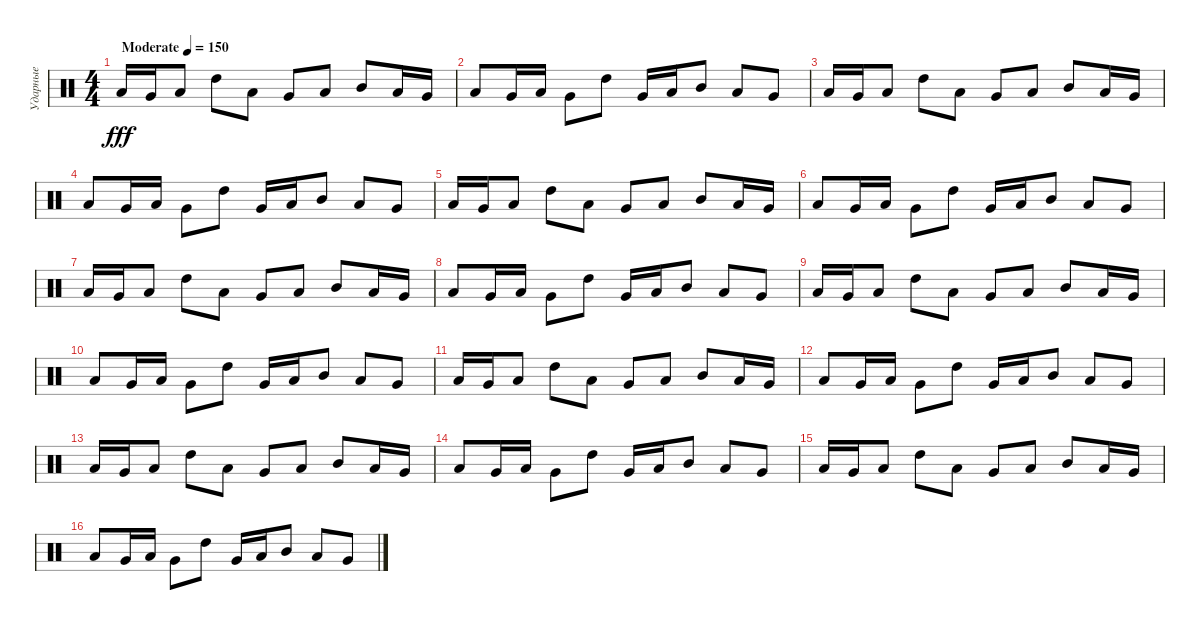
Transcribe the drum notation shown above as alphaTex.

\track ("Ударные" "Ударные") {instrument percussion}
\staff {score}
\articulation defaults
\ts (4 4)
\tempo (150 "Moderate")
\clef neutral
\ks c "Low Floor Tom (hit)".16{dy fff} "Very Low Tom (hit)".16 "Low Tom (hit)".8 "High Tom (hit)".8 "Low Tom (hit)".8 "Very Low Tom (hit)".8 "Low Floor Tom (hit)".8 "Mid Tom (hit)".8 "Low Tom (hit)".16 "Very Low Tom (hit)".16
|
"Low Floor Tom (hit)".8 "Very Low Tom (hit)".16 "Low Tom (hit)".16 "Very Low Tom (hit)".8 "High Tom (hit)".8 "Very Low Tom (hit)".16 "Low Floor Tom (hit)".16 "Mid Tom (hit)".8 "Low Tom (hit)".8 "Very Low Tom (hit)".8 |
"Low Floor Tom (hit)".16 "Very Low Tom (hit)".16 "Low Tom (hit)".8 "High Tom (hit)".8 "Low Tom (hit)".8 "Very Low Tom (hit)".8 "Low Floor Tom (hit)".8 "Mid Tom (hit)".8 "Low Tom (hit)".16 "Very Low Tom (hit)".16 |
"Low Floor Tom (hit)".8 "Very Low Tom (hit)".16 "Low Tom (hit)".16 "Very Low Tom (hit)".8 "High Tom (hit)".8 "Very Low Tom (hit)".16 "Low Floor Tom (hit)".16 "Mid Tom (hit)".8 "Low Tom (hit)".8 "Very Low Tom (hit)".8 |
"Low Floor Tom (hit)".16 "Very Low Tom (hit)".16 "Low Tom (hit)".8 "High Tom (hit)".8 "Low Tom (hit)".8 "Very Low Tom (hit)".8 "Low Floor Tom (hit)".8 "Mid Tom (hit)".8 "Low Tom (hit)".16 "Very Low Tom (hit)".16 |
"Low Floor Tom (hit)".8 "Very Low Tom (hit)".16 "Low Tom (hit)".16 "Very Low Tom (hit)".8 "High Tom (hit)".8 "Very Low Tom (hit)".16 "Low Floor Tom (hit)".16 "Mid Tom (hit)".8 "Low Tom (hit)".8 "Very Low Tom (hit)".8 |
"Low Floor Tom (hit)".16 "Very Low Tom (hit)".16 "Low Tom (hit)".8 "High Tom (hit)".8 "Low Tom (hit)".8 "Very Low Tom (hit)".8 "Low Floor Tom (hit)".8 "Mid Tom (hit)".8 "Low Tom (hit)".16 "Very Low Tom (hit)".16 |
"Low Floor Tom (hit)".8 "Very Low Tom (hit)".16 "Low Tom (hit)".16 "Very Low Tom (hit)".8 "High Tom (hit)".8 "Very Low Tom (hit)".16 "Low Floor Tom (hit)".16 "Mid Tom (hit)".8 "Low Tom (hit)".8 "Very Low Tom (hit)".8 |
"Low Floor Tom (hit)".16 "Very Low Tom (hit)".16 "Low Tom (hit)".8 "High Tom (hit)".8 "Low Tom (hit)".8 "Very Low Tom (hit)".8 "Low Floor Tom (hit)".8 "Mid Tom (hit)".8 "Low Tom (hit)".16 "Very Low Tom (hit)".16 |
"Low Floor Tom (hit)".8 "Very Low Tom (hit)".16 "Low Tom (hit)".16 "Very Low Tom (hit)".8 "High Tom (hit)".8 "Very Low Tom (hit)".16 "Low Floor Tom (hit)".16 "Mid Tom (hit)".8 "Low Tom (hit)".8 "Very Low Tom (hit)".8 |
"Low Floor Tom (hit)".16 "Very Low Tom (hit)".16 "Low Tom (hit)".8 "High Tom (hit)".8 "Low Tom (hit)".8 "Very Low Tom (hit)".8 "Low Floor Tom (hit)".8 "Mid Tom (hit)".8 "Low Tom (hit)".16 "Very Low Tom (hit)".16 |
"Low Floor Tom (hit)".8 "Very Low Tom (hit)".16 "Low Tom (hit)".16 "Very Low Tom (hit)".8 "High Tom (hit)".8 "Very Low Tom (hit)".16 "Low Floor Tom (hit)".16 "Mid Tom (hit)".8 "Low Tom (hit)".8 "Very Low Tom (hit)".8 |
"Low Floor Tom (hit)".16 "Very Low Tom (hit)".16 "Low Tom (hit)".8 "High Tom (hit)".8 "Low Tom (hit)".8 "Very Low Tom (hit)".8 "Low Floor Tom (hit)".8 "Mid Tom (hit)".8 "Low Tom (hit)".16 "Very Low Tom (hit)".16 |
"Low Floor Tom (hit)".8 "Very Low Tom (hit)".16 "Low Tom (hit)".16 "Very Low Tom (hit)".8 "High Tom (hit)".8 "Very Low Tom (hit)".16 "Low Floor Tom (hit)".16 "Mid Tom (hit)".8 "Low Tom (hit)".8 "Very Low Tom (hit)".8 |
"Low Floor Tom (hit)".16 "Very Low Tom (hit)".16 "Low Tom (hit)".8 "High Tom (hit)".8 "Low Tom (hit)".8 "Very Low Tom (hit)".8 "Low Floor Tom (hit)".8 "Mid Tom (hit)".8 "Low Tom (hit)".16 "Very Low Tom (hit)".16 |
"Low Floor Tom (hit)".8 "Very Low Tom (hit)".16 "Low Tom (hit)".16 "Very Low Tom (hit)".8 "High Tom (hit)".8 "Very Low Tom (hit)".16 "Low Floor Tom (hit)".16 "Mid Tom (hit)".8 "Low Tom (hit)".8 "Very Low Tom (hit)".8
